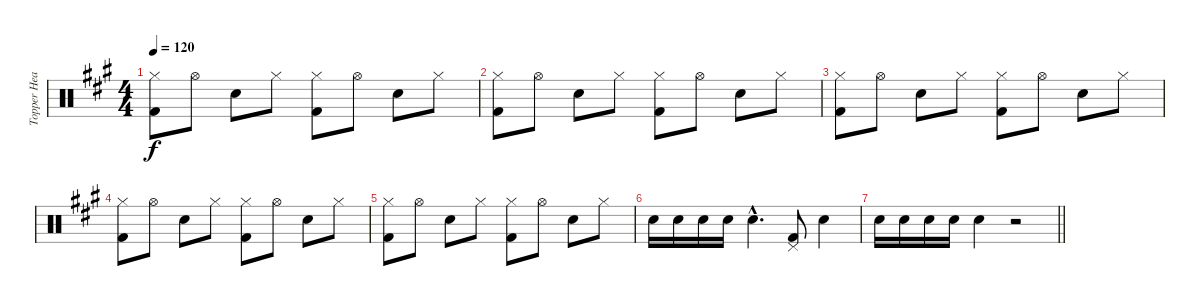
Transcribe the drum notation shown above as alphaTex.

\track ("Topper Headon (Drum)" "Topper Hea") {instrument percussion}
\staff {score}
\articulation defaults
\ts (4 4)
\tempo 120
\clef neutral
\ks a
("Hi-Hat (closed)" "Kick (hit) 2").8{dy f} "Hi-Hat (open)".8 "Electric Snare (hit)".8 "Hi-Hat (closed)".8 ("Hi-Hat (closed)" "Kick (hit) 2").8 "Hi-Hat (open)".8 "Electric Snare (hit)".8 "Hi-Hat (closed)".8 |
("Hi-Hat (closed)" "Kick (hit) 2").8 "Hi-Hat (open)".8 "Electric Snare (hit)".8 "Hi-Hat (closed)".8 ("Hi-Hat (closed)" "Kick (hit) 2").8 "Hi-Hat (open)".8 "Electric Snare (hit)".8 "Hi-Hat (closed)".8 |
("Hi-Hat (closed)" "Kick (hit) 2").8 "Hi-Hat (open)".8 "Electric Snare (hit)".8 "Hi-Hat (closed)".8 ("Hi-Hat (closed)" "Kick (hit) 2").8 "Hi-Hat (open)".8 "Electric Snare (hit)".8 "Hi-Hat (closed)".8 |
("Hi-Hat (closed)" "Kick (hit) 2").8 "Hi-Hat (open)".8 "Electric Snare (hit)".8 "Hi-Hat (closed)".8 ("Hi-Hat (closed)" "Kick (hit) 2").8 "Hi-Hat (open)".8 "Electric Snare (hit)".8 "Hi-Hat (closed)".8 |
("Hi-Hat (closed)" "Kick (hit) 2").8 "Hi-Hat (open)".8 "Electric Snare (hit)".8 "Hi-Hat (closed)".8 ("Hi-Hat (closed)" "Kick (hit) 2").8 "Hi-Hat (open)".8 "Electric Snare (hit)".8 "Hi-Hat (closed)".8 |
"Electric Snare (hit)".16 "Electric Snare (hit)".16 "Electric Snare (hit)".16 "Electric Snare (hit)".16 "Electric Snare (hit)"{hac}.4{d} ("Pedal Hi-Hat (hit)" "Kick (hit) 2").8 "Electric Snare (hit)".4 |
\barLineRight lightlight "Electric Snare (hit)".16 "Electric Snare (hit)".16 "Electric Snare (hit)".16 "Electric Snare (hit)".16 "Electric Snare (hit)".4
r.2
